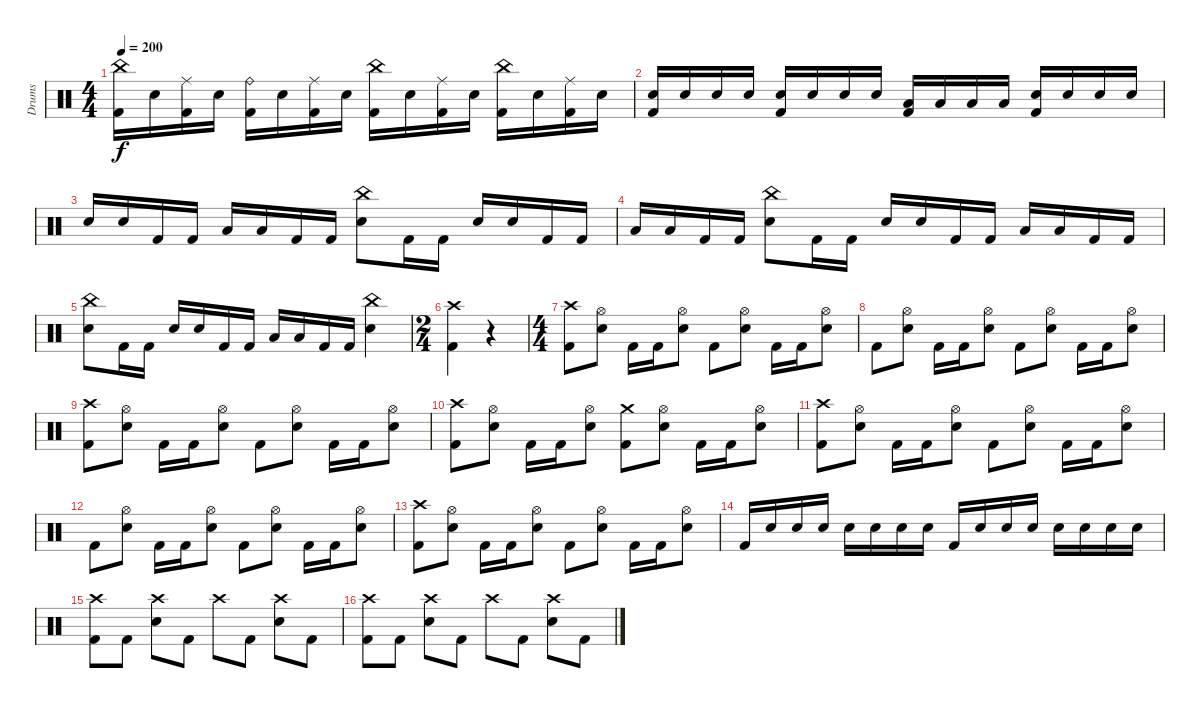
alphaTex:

\track ("Drums" "Drums") {instrument percussion}
\staff {score}
\articulation defaults
\ts (4 4)
\tempo 200
\clef neutral
\ks c
("China (hit)" "Kick (hit) 2").16{dy f} "Electric Snare (hit)".16 ("Ride (middle)" "Kick (hit) 2").16 "Electric Snare (hit)".16 ("Ride (bell)" "Kick (hit) 2").16 "Electric Snare (hit)".16 ("Ride (middle)" "Kick (hit) 2").16 "Electric Snare (hit)".16 ("China (hit)" "Kick (hit) 2").16 "Electric Snare (hit)".16 ("Ride (middle)" "Kick (hit) 2").16 "Electric Snare (hit)".16 ("China (hit)" "Kick (hit) 2").16 "Electric Snare (hit)".16 ("Ride (middle)" "Kick (hit) 2").16 "Electric Snare (hit)".16 |
("Electric Snare (hit)" "Kick (hit) 2").16 "Electric Snare (hit)".16 "Electric Snare (hit)".16 "Electric Snare (hit)".16 ("Electric Snare (hit)" "Kick (hit) 2").16 "Electric Snare (hit)".16 "Electric Snare (hit)".16 "Electric Snare (hit)".16 ("Low Tom (hit)" "Kick (hit) 2").16 "Low Tom (hit)".16 "Low Tom (hit)".16 "Low Tom (hit)".16 ("Electric Snare (hit)" "Kick (hit) 2").16 "Electric Snare (hit)".16 "Electric Snare (hit)".16 "Electric Snare (hit)".16 |
"Electric Snare (hit)".16 "Electric Snare (hit)".16 "Kick (hit) 2".16 "Kick (hit) 2".16 "Low Tom (hit)".16 "Low Tom (hit)".16 "Kick (hit) 2".16 "Kick (hit) 2".16 ("China (hit)" "Electric Snare (hit)").8 "Kick (hit) 2".16 "Kick (hit) 2".16 "Electric Snare (hit)".16 "Electric Snare (hit)".16 "Kick (hit) 2".16 "Kick (hit) 2".16 |
"Low Tom (hit)".16 "Low Tom (hit)".16 "Kick (hit) 2".16 "Kick (hit) 2".16 ("China (hit)" "Electric Snare (hit)").8 "Kick (hit) 2".16 "Kick (hit) 2".16 "Electric Snare (hit)".16 "Electric Snare (hit)".16 "Kick (hit) 2".16 "Kick (hit) 2".16 "Low Tom (hit)".16 "Low Tom (hit)".16 "Kick (hit) 2".16 "Kick (hit) 2".16 |
("China (hit)" "Electric Snare (hit)").8 "Kick (hit) 2".16 "Kick (hit) 2".16 "Electric Snare (hit)".16 "Electric Snare (hit)".16 "Kick (hit) 2".16 "Kick (hit) 2".16 "Low Tom (hit)".16 "Low Tom (hit)".16 "Kick (hit) 2".16 "Kick (hit) 2".16 ("China (hit)" "Electric Snare (hit)").4 |
\ts (2 4)
("Crash high (hit)" "Kick (hit) 2").4 r.4{volume 0} |
\ts (4 4)
("Crash high (hit)" "Kick (hit) 2").8{volume 16} ("Hi-Hat (open)" "Electric Snare (hit)").8 "Kick (hit) 2".16 "Kick (hit) 2".16 ("Hi-Hat (open)" "Electric Snare (hit)").8 "Kick (hit) 2".8 ("Hi-Hat (open)" "Electric Snare (hit)").8 "Kick (hit) 2".16 "Kick (hit) 2".16 ("Hi-Hat (open)" "Electric Snare (hit)").8 |
"Kick (hit) 2".8 ("Hi-Hat (open)" "Electric Snare (hit)").8 "Kick (hit) 2".16 "Kick (hit) 2".16 ("Hi-Hat (open)" "Electric Snare (hit)").8 "Kick (hit) 2".8 ("Hi-Hat (open)" "Electric Snare (hit)").8 "Kick (hit) 2".16 "Kick (hit) 2".16 ("Hi-Hat (open)" "Electric Snare (hit)").8 |
("Crash high (hit)" "Kick (hit) 2").8 ("Hi-Hat (open)" "Electric Snare (hit)").8 "Kick (hit) 2".16 "Kick (hit) 2".16 ("Hi-Hat (open)" "Electric Snare (hit)").8 "Kick (hit) 2".8 ("Hi-Hat (open)" "Electric Snare (hit)").8 "Kick (hit) 2".16 "Kick (hit) 2".16 ("Hi-Hat (open)" "Electric Snare (hit)").8 |
("Crash high (hit)" "Kick (hit) 2").8 ("Hi-Hat (open)" "Electric Snare (hit)").8 "Kick (hit) 2".16 "Kick (hit) 2".16 ("Hi-Hat (open)" "Electric Snare (hit)").8 ("Crash medium (hit)" "Kick (hit) 2").8 ("Hi-Hat (open)" "Electric Snare (hit)").8 "Kick (hit) 2".16 "Kick (hit) 2".16 ("Hi-Hat (open)" "Electric Snare (hit)").8 |
("Crash high (hit)" "Kick (hit) 2").8 ("Hi-Hat (open)" "Electric Snare (hit)").8 "Kick (hit) 2".16 "Kick (hit) 2".16 ("Hi-Hat (open)" "Electric Snare (hit)").8 "Kick (hit) 2".8 ("Hi-Hat (open)" "Electric Snare (hit)").8 "Kick (hit) 2".16 "Kick (hit) 2".16 ("Hi-Hat (open)" "Electric Snare (hit)").8 |
"Kick (hit) 2".8 ("Hi-Hat (open)" "Electric Snare (hit)").8 "Kick (hit) 2".16 "Kick (hit) 2".16 ("Hi-Hat (open)" "Electric Snare (hit)").8 "Kick (hit) 2".8 ("Hi-Hat (open)" "Electric Snare (hit)").8 "Kick (hit) 2".16 "Kick (hit) 2".16 ("Hi-Hat (open)" "Electric Snare (hit)").8 |
("Crash high (hit)" "Kick (hit) 2").8 ("Hi-Hat (open)" "Electric Snare (hit)").8 "Kick (hit) 2".16 "Kick (hit) 2".16 ("Hi-Hat (open)" "Electric Snare (hit)").8 "Kick (hit) 2".8 ("Hi-Hat (open)" "Electric Snare (hit)").8 "Kick (hit) 2".16 "Kick (hit) 2".16 ("Hi-Hat (open)" "Electric Snare (hit)").8 |
"Kick (hit) 2".16 "Electric Snare (hit)".16 "Electric Snare (hit)".16 "Electric Snare (hit)".16 "Electric Snare (hit)".16 "Electric Snare (hit)".16 "Electric Snare (hit)".16 "Electric Snare (hit)".16 "Kick (hit) 2".16 "Electric Snare (hit)".16 "Electric Snare (hit)".16 "Electric Snare (hit)".16 "Electric Snare (hit)".16 "Electric Snare (hit)".16 "Electric Snare (hit)".16 "Electric Snare (hit)".16 |
("Crash high (hit)" "Kick (hit) 2").8 "Kick (hit) 2".8 ("Crash high (hit)" "Electric Snare (hit)").8 "Kick (hit) 2".8 "Crash high (hit)".8 "Kick (hit) 2".8 ("Crash high (hit)" "Electric Snare (hit)").8 "Kick (hit) 2".8 |
("Crash high (hit)" "Kick (hit) 2").8 "Kick (hit) 2".8 ("Crash high (hit)" "Electric Snare (hit)").8 "Kick (hit) 2".8 "Crash high (hit)".8 "Kick (hit) 2".8 ("Crash high (hit)" "Electric Snare (hit)").8 "Kick (hit) 2".8
